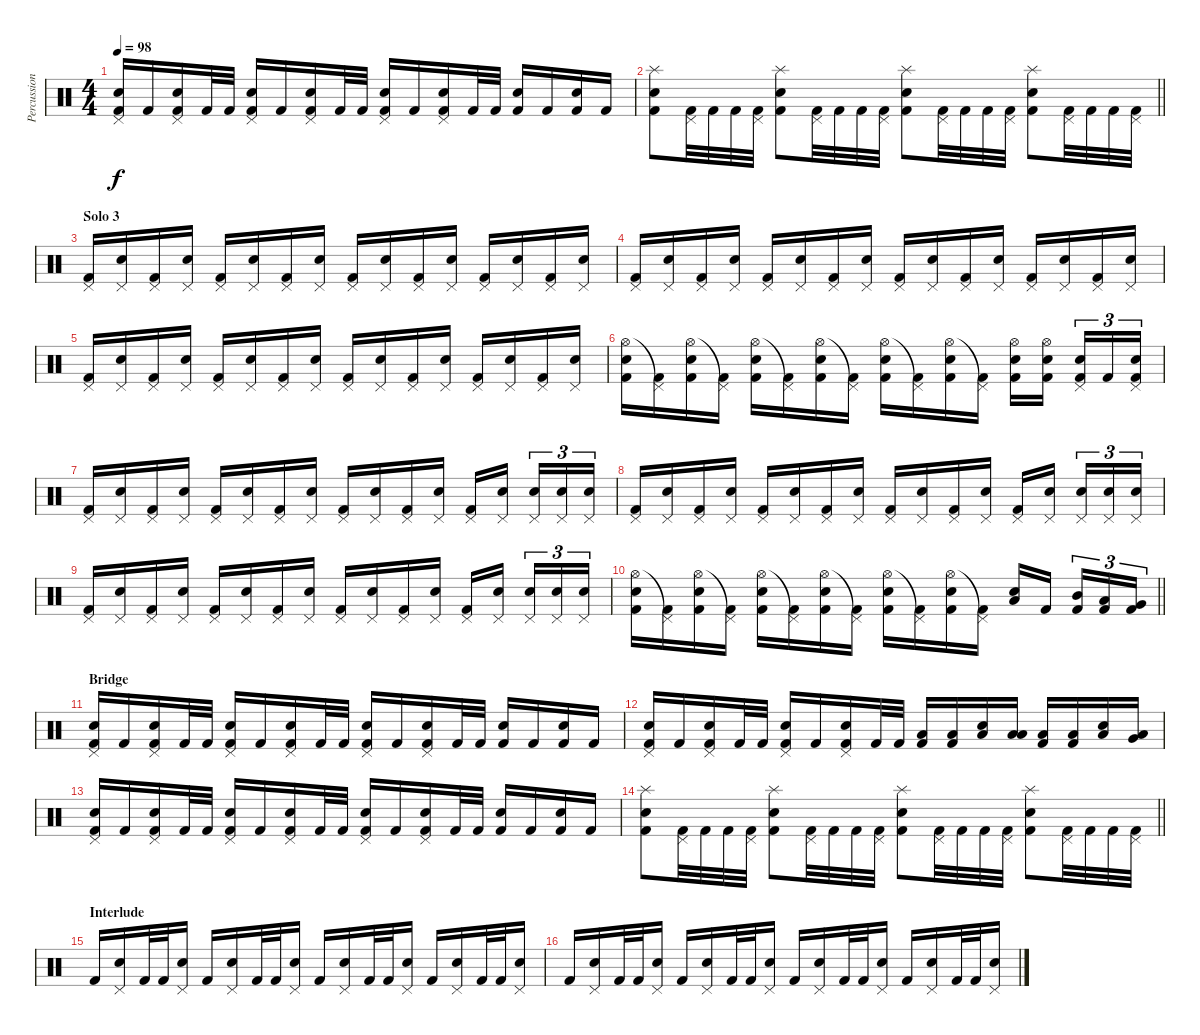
\track ("Percussion" "Percussion") {instrument percussion}
\staff {score}
\articulation defaults
\ts (4 4)
\tempo 98
\clef neutral
\ks c
("Pedal Hi-Hat (hit)" "Snare (hit) 2" "Kick (hit) 2").16{dy f} "Kick (hit) 2".16 ("Pedal Hi-Hat (hit)" "Snare (hit) 2" "Kick (hit) 2").16 "Kick (hit) 2".32 "Kick (hit) 2".32 ("Pedal Hi-Hat (hit)" "Snare (hit) 2" "Kick (hit) 2").16 "Kick (hit) 2".16 ("Pedal Hi-Hat (hit)" "Snare (hit) 2" "Kick (hit) 2").16 "Kick (hit) 2".32 "Kick (hit) 2".32 ("Pedal Hi-Hat (hit)" "Snare (hit) 2" "Kick (hit) 2").16 "Kick (hit) 2".16 ("Pedal Hi-Hat (hit)" "Snare (hit) 2" "Kick (hit) 2").16 "Kick (hit) 2".32 "Kick (hit) 2".32 ("Snare (hit) 2" "Kick (hit) 2").16 "Kick (hit) 2".16 ("Snare (hit) 2" "Kick (hit) 2").16 "Kick (hit) 2".16 |
\barLineRight lightlight
("Splash (hit)" "Snare (hit) 2" "Kick (hit) 2").8 ("Pedal Hi-Hat (hit)" "Kick (hit) 2").32 "Kick (hit) 2".32 "Kick (hit) 2".32 ("Pedal Hi-Hat (hit)" "Kick (hit) 2").32 ("Splash (hit)" "Snare (hit) 2" "Kick (hit) 2").8 ("Pedal Hi-Hat (hit)" "Kick (hit) 2").32 "Kick (hit) 2".32 "Kick (hit) 2".32 ("Pedal Hi-Hat (hit)" "Kick (hit) 2").32 ("Splash (hit)" "Snare (hit) 2" "Kick (hit) 2").8 ("Pedal Hi-Hat (hit)" "Kick (hit) 2").32 "Kick (hit) 2".32 "Kick (hit) 2".32 ("Pedal Hi-Hat (hit)" "Kick (hit) 2").32 ("Splash (hit)" "Snare (hit) 2" "Kick (hit) 2").8 ("Pedal Hi-Hat (hit)" "Kick (hit) 2").32 "Kick (hit) 2".32 "Kick (hit) 2".32 ("Pedal Hi-Hat (hit)" "Kick (hit) 2").32 |
\section ("" "Solo 3")
("Pedal Hi-Hat (hit)" "Kick (hit) 2").16 ("Pedal Hi-Hat (hit)" "Snare (hit) 2").16 ("Pedal Hi-Hat (hit)" "Kick (hit) 2").16 ("Pedal Hi-Hat (hit)" "Snare (hit) 2").16 ("Pedal Hi-Hat (hit)" "Kick (hit) 2").16 ("Pedal Hi-Hat (hit)" "Snare (hit) 2").16 ("Pedal Hi-Hat (hit)" "Kick (hit) 2").16 ("Pedal Hi-Hat (hit)" "Snare (hit) 2").16 ("Pedal Hi-Hat (hit)" "Kick (hit) 2").16 ("Pedal Hi-Hat (hit)" "Snare (hit) 2").16 ("Pedal Hi-Hat (hit)" "Kick (hit) 2").16 ("Pedal Hi-Hat (hit)" "Snare (hit) 2").16 ("Pedal Hi-Hat (hit)" "Kick (hit) 2").16 ("Pedal Hi-Hat (hit)" "Snare (hit) 2").16 ("Pedal Hi-Hat (hit)" "Kick (hit) 2").16 ("Pedal Hi-Hat (hit)" "Snare (hit) 2").16 |
("Pedal Hi-Hat (hit)" "Kick (hit) 2").16 ("Pedal Hi-Hat (hit)" "Snare (hit) 2").16 ("Pedal Hi-Hat (hit)" "Kick (hit) 2").16 ("Pedal Hi-Hat (hit)" "Snare (hit) 2").16 ("Pedal Hi-Hat (hit)" "Kick (hit) 2").16 ("Pedal Hi-Hat (hit)" "Snare (hit) 2").16 ("Pedal Hi-Hat (hit)" "Kick (hit) 2").16 ("Pedal Hi-Hat (hit)" "Snare (hit) 2").16 ("Pedal Hi-Hat (hit)" "Kick (hit) 2").16 ("Pedal Hi-Hat (hit)" "Snare (hit) 2").16 ("Pedal Hi-Hat (hit)" "Kick (hit) 2").16 ("Pedal Hi-Hat (hit)" "Snare (hit) 2").16 ("Pedal Hi-Hat (hit)" "Kick (hit) 2").16 ("Pedal Hi-Hat (hit)" "Snare (hit) 2").16 ("Pedal Hi-Hat (hit)" "Kick (hit) 2").16 ("Pedal Hi-Hat (hit)" "Snare (hit) 2").16 |
("Pedal Hi-Hat (hit)" "Kick (hit) 2").16 ("Pedal Hi-Hat (hit)" "Snare (hit) 2").16 ("Pedal Hi-Hat (hit)" "Kick (hit) 2").16 ("Pedal Hi-Hat (hit)" "Snare (hit) 2").16 ("Pedal Hi-Hat (hit)" "Kick (hit) 2").16 ("Pedal Hi-Hat (hit)" "Snare (hit) 2").16 ("Pedal Hi-Hat (hit)" "Kick (hit) 2").16 ("Pedal Hi-Hat (hit)" "Snare (hit) 2").16 ("Pedal Hi-Hat (hit)" "Kick (hit) 2").16 ("Pedal Hi-Hat (hit)" "Snare (hit) 2").16 ("Pedal Hi-Hat (hit)" "Kick (hit) 2").16 ("Pedal Hi-Hat (hit)" "Snare (hit) 2").16 ("Pedal Hi-Hat (hit)" "Kick (hit) 2").16 ("Pedal Hi-Hat (hit)" "Snare (hit) 2").16 ("Pedal Hi-Hat (hit)" "Kick (hit) 2").16 ("Pedal Hi-Hat (hit)" "Snare (hit) 2").16 |
("Hi-Hat (open)" "Snare (hit) 2" "Kick (hit) 2").16 ("Pedal Hi-Hat (hit)"{t} "Kick (hit) 2").16 ("Hi-Hat (open)" "Snare (hit) 2" "Kick (hit) 2").16 ("Pedal Hi-Hat (hit)"{t} "Kick (hit) 2").16 ("Hi-Hat (open)" "Snare (hit) 2" "Kick (hit) 2").16 ("Pedal Hi-Hat (hit)"{t} "Kick (hit) 2").16 ("Hi-Hat (open)" "Snare (hit) 2" "Kick (hit) 2").16 ("Pedal Hi-Hat (hit)"{t} "Kick (hit) 2").16 ("Hi-Hat (open)" "Snare (hit) 2" "Kick (hit) 2").16 ("Pedal Hi-Hat (hit)"{t} "Kick (hit) 2").16 ("Hi-Hat (open)" "Snare (hit) 2" "Kick (hit) 2").16 ("Pedal Hi-Hat (hit)"{t} "Kick (hit) 2").16 ("Hi-Hat (open)" "Snare (hit) 2" "Kick (hit) 2").16 ("Hi-Hat (open)" "Snare (hit) 2" "Kick (hit) 2").16{beam splitsecondary} ("Pedal Hi-Hat (hit)" "Snare (hit) 2" "Kick (hit) 2").16{tu (3 2)} "Kick (hit) 2".16{tu (3 2)} ("Pedal Hi-Hat (hit)" "Snare (hit) 2" "Kick (hit) 2").16{tu (3 2)} |
("Pedal Hi-Hat (hit)" "Kick (hit) 2").16 ("Pedal Hi-Hat (hit)" "Snare (hit) 2").16 ("Pedal Hi-Hat (hit)" "Kick (hit) 2").16 ("Pedal Hi-Hat (hit)" "Snare (hit) 2").16 ("Pedal Hi-Hat (hit)" "Kick (hit) 2").16 ("Pedal Hi-Hat (hit)" "Snare (hit) 2").16 ("Pedal Hi-Hat (hit)" "Kick (hit) 2").16 ("Pedal Hi-Hat (hit)" "Snare (hit) 2").16 ("Pedal Hi-Hat (hit)" "Kick (hit) 2").16 ("Pedal Hi-Hat (hit)" "Snare (hit) 2").16 ("Pedal Hi-Hat (hit)" "Kick (hit) 2").16 ("Pedal Hi-Hat (hit)" "Snare (hit) 2").16 ("Pedal Hi-Hat (hit)" "Kick (hit) 2").16 ("Pedal Hi-Hat (hit)" "Snare (hit) 2").16{beam splitsecondary} ("Pedal Hi-Hat (hit)" "Snare (hit) 2").16{tu (3 2)} ("Pedal Hi-Hat (hit)" "Snare (hit) 2").16{tu (3 2)} ("Pedal Hi-Hat (hit)" "Snare (hit) 2").16{tu (3 2)} |
("Pedal Hi-Hat (hit)" "Kick (hit) 2").16 ("Pedal Hi-Hat (hit)" "Snare (hit) 2").16 ("Pedal Hi-Hat (hit)" "Kick (hit) 2").16 ("Pedal Hi-Hat (hit)" "Snare (hit) 2").16 ("Pedal Hi-Hat (hit)" "Kick (hit) 2").16 ("Pedal Hi-Hat (hit)" "Snare (hit) 2").16 ("Pedal Hi-Hat (hit)" "Kick (hit) 2").16 ("Pedal Hi-Hat (hit)" "Snare (hit) 2").16 ("Pedal Hi-Hat (hit)" "Kick (hit) 2").16 ("Pedal Hi-Hat (hit)" "Snare (hit) 2").16 ("Pedal Hi-Hat (hit)" "Kick (hit) 2").16 ("Pedal Hi-Hat (hit)" "Snare (hit) 2").16 ("Pedal Hi-Hat (hit)" "Kick (hit) 2").16 ("Pedal Hi-Hat (hit)" "Snare (hit) 2").16{beam splitsecondary} ("Pedal Hi-Hat (hit)" "Snare (hit) 2").16{tu (3 2)} ("Pedal Hi-Hat (hit)" "Snare (hit) 2").16{tu (3 2)} ("Pedal Hi-Hat (hit)" "Snare (hit) 2").16{tu (3 2)} |
("Pedal Hi-Hat (hit)" "Kick (hit) 2").16 ("Pedal Hi-Hat (hit)" "Snare (hit) 2").16 ("Pedal Hi-Hat (hit)" "Kick (hit) 2").16 ("Pedal Hi-Hat (hit)" "Snare (hit) 2").16 ("Pedal Hi-Hat (hit)" "Kick (hit) 2").16 ("Pedal Hi-Hat (hit)" "Snare (hit) 2").16 ("Pedal Hi-Hat (hit)" "Kick (hit) 2").16 ("Pedal Hi-Hat (hit)" "Snare (hit) 2").16 ("Pedal Hi-Hat (hit)" "Kick (hit) 2").16 ("Pedal Hi-Hat (hit)" "Snare (hit) 2").16 ("Pedal Hi-Hat (hit)" "Kick (hit) 2").16 ("Pedal Hi-Hat (hit)" "Snare (hit) 2").16 ("Pedal Hi-Hat (hit)" "Kick (hit) 2").16 ("Pedal Hi-Hat (hit)" "Snare (hit) 2").16{beam splitsecondary} ("Pedal Hi-Hat (hit)" "Snare (hit) 2").16{tu (3 2)} ("Pedal Hi-Hat (hit)" "Snare (hit) 2").16{tu (3 2)} ("Pedal Hi-Hat (hit)" "Snare (hit) 2").16{tu (3 2)} |
\barLineRight lightlight
("Hi-Hat (open)" "Snare (hit) 2" "Kick (hit) 2").16 ("Pedal Hi-Hat (hit)"{t} "Kick (hit) 2").16 ("Hi-Hat (open)" "Snare (hit) 2" "Kick (hit) 2").16 ("Pedal Hi-Hat (hit)"{t} "Kick (hit) 2").16 ("Hi-Hat (open)" "Snare (hit) 2" "Kick (hit) 2").16 ("Pedal Hi-Hat (hit)"{t} "Kick (hit) 2").16 ("Hi-Hat (open)" "Snare (hit) 2" "Kick (hit) 2").16 ("Pedal Hi-Hat (hit)"{t} "Kick (hit) 2").16 ("Hi-Hat (open)" "Snare (hit) 2" "Kick (hit) 2").16 ("Pedal Hi-Hat (hit)"{t} "Kick (hit) 2").16 ("Hi-Hat (open)" "Snare (hit) 2" "Kick (hit) 2").16 ("Pedal Hi-Hat (hit)"{t} "Kick (hit) 2").16 ("Low Floor Tom (hit)" "Snare (hit) 2").16 "Kick (hit) 2".16{beam splitsecondary} ("Mid Tom (hit)" "Kick (hit) 2").16{tu (3 2)} ("Low Tom (hit)" "Kick (hit) 2").16{tu (3 2)} ("Very Low Tom (hit)" "Kick (hit) 2").16{tu (3 2)} |
\section ("" "Bridge")
("Pedal Hi-Hat (hit)" "Snare (hit) 2" "Kick (hit) 2").16 "Kick (hit) 2".16 ("Pedal Hi-Hat (hit)" "Snare (hit) 2" "Kick (hit) 2").16 "Kick (hit) 2".32 "Kick (hit) 2".32 ("Pedal Hi-Hat (hit)" "Snare (hit) 2" "Kick (hit) 2").16 "Kick (hit) 2".16 ("Pedal Hi-Hat (hit)" "Snare (hit) 2" "Kick (hit) 2").16 "Kick (hit) 2".32 "Kick (hit) 2".32 ("Pedal Hi-Hat (hit)" "Snare (hit) 2" "Kick (hit) 2").16 "Kick (hit) 2".16 ("Pedal Hi-Hat (hit)" "Snare (hit) 2" "Kick (hit) 2").16 "Kick (hit) 2".32 "Kick (hit) 2".32 ("Snare (hit) 2" "Kick (hit) 2").16 "Kick (hit) 2".16 ("Snare (hit) 2" "Kick (hit) 2").16 "Kick (hit) 2".16 |
("Pedal Hi-Hat (hit)" "Snare (hit) 2" "Kick (hit) 2").16 "Kick (hit) 2".16 ("Pedal Hi-Hat (hit)" "Snare (hit) 2" "Kick (hit) 2").16 "Kick (hit) 2".32 "Kick (hit) 2".32 ("Pedal Hi-Hat (hit)" "Snare (hit) 2" "Kick (hit) 2").16 "Kick (hit) 2".16 ("Pedal Hi-Hat (hit)" "Snare (hit) 2" "Kick (hit) 2").16 "Kick (hit) 2".32 "Kick (hit) 2".32 ("Low Floor Tom (hit)" "Kick (hit) 2").16 ("Low Floor Tom (hit)" "Kick (hit) 2").16 ("Snare (hit) 2" "Low Floor Tom (hit)").16 ("Low Tom (hit)" "Low Floor Tom (hit)").16 ("Low Floor Tom (hit)" "Kick (hit) 2").16 ("Low Floor Tom (hit)" "Kick (hit) 2").16 ("Snare (hit) 2" "Low Floor Tom (hit)").16 ("Very Low Tom (hit)" "Low Floor Tom (hit)").16 |
("Pedal Hi-Hat (hit)" "Snare (hit) 2" "Kick (hit) 2").16 "Kick (hit) 2".16 ("Pedal Hi-Hat (hit)" "Snare (hit) 2" "Kick (hit) 2").16 "Kick (hit) 2".32 "Kick (hit) 2".32 ("Pedal Hi-Hat (hit)" "Snare (hit) 2" "Kick (hit) 2").16 "Kick (hit) 2".16 ("Pedal Hi-Hat (hit)" "Snare (hit) 2" "Kick (hit) 2").16 "Kick (hit) 2".32 "Kick (hit) 2".32 ("Pedal Hi-Hat (hit)" "Snare (hit) 2" "Kick (hit) 2").16 "Kick (hit) 2".16 ("Pedal Hi-Hat (hit)" "Snare (hit) 2" "Kick (hit) 2").16 "Kick (hit) 2".32 "Kick (hit) 2".32 ("Snare (hit) 2" "Kick (hit) 2").16 "Kick (hit) 2".16 ("Snare (hit) 2" "Kick (hit) 2").16 "Kick (hit) 2".16 |
\barLineRight lightlight
("Splash (hit)" "Snare (hit) 2" "Kick (hit) 2").8 ("Pedal Hi-Hat (hit)" "Kick (hit) 2").32 "Kick (hit) 2".32 "Kick (hit) 2".32 ("Pedal Hi-Hat (hit)" "Kick (hit) 2").32 ("Splash (hit)" "Snare (hit) 2" "Kick (hit) 2").8 ("Pedal Hi-Hat (hit)" "Kick (hit) 2").32 "Kick (hit) 2".32 "Kick (hit) 2".32 ("Pedal Hi-Hat (hit)" "Kick (hit) 2").32 ("Splash (hit)" "Snare (hit) 2" "Kick (hit) 2").8 ("Pedal Hi-Hat (hit)" "Kick (hit) 2").32 "Kick (hit) 2".32 "Kick (hit) 2".32 ("Pedal Hi-Hat (hit)" "Kick (hit) 2").32 ("Splash (hit)" "Snare (hit) 2" "Kick (hit) 2").8 ("Pedal Hi-Hat (hit)" "Kick (hit) 2").32 "Kick (hit) 2".32 "Kick (hit) 2".32 ("Pedal Hi-Hat (hit)" "Kick (hit) 2").32 |
\section ("" "Interlude")
"Kick (hit) 2".16 ("Pedal Hi-Hat (hit)" "Snare (hit) 2").16 "Kick (hit) 2".32 "Kick (hit) 2".32 ("Pedal Hi-Hat (hit)" "Snare (hit) 2").16 "Kick (hit) 2".16 ("Pedal Hi-Hat (hit)" "Snare (hit) 2").16 "Kick (hit) 2".32 "Kick (hit) 2".32 ("Pedal Hi-Hat (hit)" "Snare (hit) 2").16 "Kick (hit) 2".16 ("Pedal Hi-Hat (hit)" "Snare (hit) 2").16 "Kick (hit) 2".32 "Kick (hit) 2".32 ("Pedal Hi-Hat (hit)" "Snare (hit) 2").16 "Kick (hit) 2".16 ("Pedal Hi-Hat (hit)" "Snare (hit) 2").16 "Kick (hit) 2".32 "Kick (hit) 2".32 ("Pedal Hi-Hat (hit)" "Snare (hit) 2").16 |
"Kick (hit) 2".16 ("Pedal Hi-Hat (hit)" "Snare (hit) 2").16 "Kick (hit) 2".32 "Kick (hit) 2".32 ("Pedal Hi-Hat (hit)" "Snare (hit) 2").16 "Kick (hit) 2".16 ("Pedal Hi-Hat (hit)" "Snare (hit) 2").16 "Kick (hit) 2".32 "Kick (hit) 2".32 ("Pedal Hi-Hat (hit)" "Snare (hit) 2").16 "Kick (hit) 2".16 ("Pedal Hi-Hat (hit)" "Snare (hit) 2").16 "Kick (hit) 2".32 "Kick (hit) 2".32 ("Pedal Hi-Hat (hit)" "Snare (hit) 2").16 "Kick (hit) 2".16 ("Pedal Hi-Hat (hit)" "Snare (hit) 2").16 "Kick (hit) 2".32 "Kick (hit) 2".32 ("Pedal Hi-Hat (hit)" "Snare (hit) 2").16
